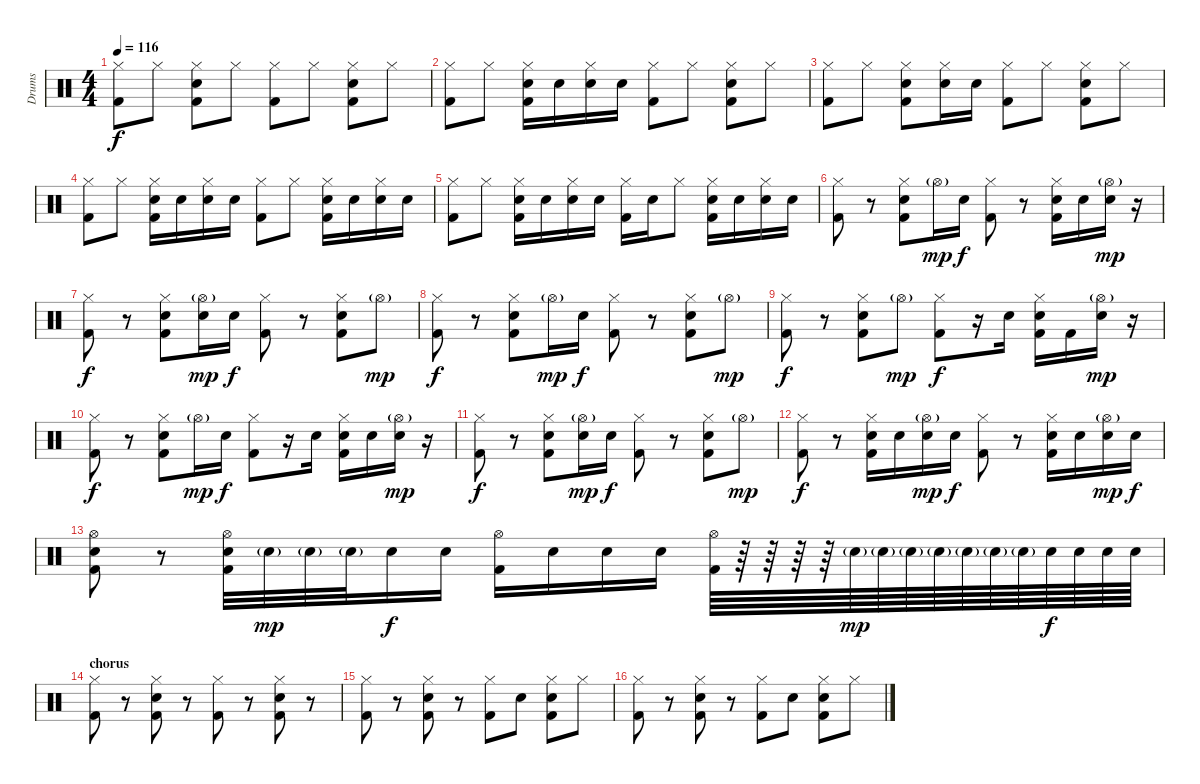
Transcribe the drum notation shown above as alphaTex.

\track ("Drums" "Drums") {instrument percussion}
\staff {score}
\articulation defaults
\ts (4 4)
\tempo 116
\clef neutral
\ks c
("Hi-Hat (closed)" "Kick (hit) 2").8{dy f} "Hi-Hat (closed)".8 ("Hi-Hat (closed)" "Snare (hit) 2" "Kick (hit) 2").8 "Hi-Hat (closed)".8 ("Hi-Hat (closed)" "Kick (hit) 2").8 "Hi-Hat (closed)".8 ("Hi-Hat (closed)" "Snare (hit) 2" "Kick (hit) 2").8 "Hi-Hat (closed)".8 |
("Hi-Hat (closed)" "Kick (hit) 2").8 "Hi-Hat (closed)".8 ("Hi-Hat (closed)" "Snare (hit) 2" "Kick (hit) 2").16 "Snare (hit) 2".16 ("Hi-Hat (closed)" "Snare (hit) 2").16 "Snare (hit) 2".16 ("Hi-Hat (closed)" "Kick (hit) 2").8 "Hi-Hat (closed)".8 ("Hi-Hat (closed)" "Snare (hit) 2" "Kick (hit) 2").8 "Hi-Hat (closed)".8 |
("Hi-Hat (closed)" "Kick (hit) 2").8 "Hi-Hat (closed)".8 ("Hi-Hat (closed)" "Snare (hit) 2" "Kick (hit) 2").8 ("Hi-Hat (closed)" "Snare (hit) 2").16 "Snare (hit) 2".16 ("Hi-Hat (closed)" "Kick (hit) 2").8 "Hi-Hat (closed)".8 ("Hi-Hat (closed)" "Snare (hit) 2" "Kick (hit) 2").8 "Hi-Hat (closed)".8 |
("Hi-Hat (closed)" "Kick (hit) 2").8 "Hi-Hat (closed)".8 ("Hi-Hat (closed)" "Snare (hit) 2" "Kick (hit) 2").16 "Snare (hit) 2".16 ("Hi-Hat (closed)" "Snare (hit) 2").16 "Snare (hit) 2".16 ("Hi-Hat (closed)" "Kick (hit) 2").8 "Hi-Hat (closed)".8 ("Hi-Hat (closed)" "Snare (hit) 2" "Kick (hit) 2").16 "Snare (hit) 2".16 ("Hi-Hat (closed)" "Snare (hit) 2").16 "Snare (hit) 2".16 |
("Hi-Hat (closed)" "Kick (hit) 2").8 "Hi-Hat (closed)".8 ("Hi-Hat (closed)" "Snare (hit) 2" "Kick (hit) 2").16 "Snare (hit) 2".16 ("Hi-Hat (closed)" "Snare (hit) 2").16 "Snare (hit) 2".16 ("Hi-Hat (closed)" "Kick (hit) 2").16 "Snare (hit) 2".16 "Hi-Hat (closed)".8 ("Hi-Hat (closed)" "Snare (hit) 2" "Kick (hit) 2").16 "Snare (hit) 2".16 ("Hi-Hat (closed)" "Snare (hit) 2").16 "Snare (hit) 2".16 |
("Hi-Hat (closed)" "Kick (hit) 2").8 r.8 ("Hi-Hat (closed)" "Snare (hit) 2" "Kick (hit) 2").8 "Hi-Hat (open)"{g}.16{dy mp} "Snare (hit) 2".16{dy f} ("Hi-Hat (closed)" "Kick (hit) 2").8 r.8 ("Hi-Hat (closed)" "Snare (hit) 2" "Kick (hit) 2").16 "Snare (hit) 2".16 ("Hi-Hat (open)"{g} "Snare (hit) 2").16{dy mp} r.16 |
("Hi-Hat (closed)" "Kick (hit) 2").8{dy f} r.8 ("Hi-Hat (closed)" "Snare (hit) 2" "Kick (hit) 2").8 ("Hi-Hat (open)"{g} "Snare (hit) 2").16{dy mp} "Snare (hit) 2".16{dy f} ("Hi-Hat (closed)" "Kick (hit) 2").8 r.8 ("Hi-Hat (closed)" "Snare (hit) 2" "Kick (hit) 2").8 "Hi-Hat (open)"{g}.8{dy mp} |
("Hi-Hat (closed)" "Kick (hit) 2").8{dy f} r.8 ("Hi-Hat (closed)" "Snare (hit) 2" "Kick (hit) 2").8 "Hi-Hat (open)"{g}.16{dy mp} "Snare (hit) 2".16{dy f} ("Hi-Hat (closed)" "Kick (hit) 2").8 r.8 ("Hi-Hat (closed)" "Snare (hit) 2" "Kick (hit) 2").8 "Hi-Hat (open)"{g}.8{dy mp} |
("Hi-Hat (closed)" "Kick (hit) 2").8{dy f} r.8 ("Hi-Hat (closed)" "Snare (hit) 2" "Kick (hit) 2").8 "Hi-Hat (open)"{g}.8{dy mp} ("Hi-Hat (closed)" "Kick (hit) 2").8{dy f} r.16 "Snare (hit) 2".16 ("Hi-Hat (closed)" "Snare (hit) 2" "Kick (hit) 2").16 "Kick (hit) 2".16 ("Hi-Hat (open)"{g} "Snare (hit) 2").16{dy mp} r.16 |
("Hi-Hat (closed)" "Kick (hit) 2").8{dy f} r.8 ("Hi-Hat (closed)" "Snare (hit) 2" "Kick (hit) 2").8 "Hi-Hat (open)"{g}.16{dy mp} "Snare (hit) 2".16{dy f} ("Hi-Hat (closed)" "Kick (hit) 2").8 r.16 "Snare (hit) 2".16 ("Hi-Hat (closed)" "Snare (hit) 2" "Kick (hit) 2").16 "Snare (hit) 2".16 ("Hi-Hat (open)"{g} "Snare (hit) 2").16{dy mp} r.16 |
("Hi-Hat (closed)" "Kick (hit) 2").8{dy f} r.8 ("Hi-Hat (closed)" "Snare (hit) 2" "Kick (hit) 2").8 ("Hi-Hat (open)"{g} "Snare (hit) 2").16{dy mp} "Snare (hit) 2".16{dy f} ("Hi-Hat (closed)" "Kick (hit) 2").8 r.8 ("Hi-Hat (closed)" "Snare (hit) 2" "Kick (hit) 2").8 "Hi-Hat (open)"{g}.8{dy mp} |
("Hi-Hat (closed)" "Kick (hit) 2").8{dy f} r.8 ("Hi-Hat (closed)" "Snare (hit) 2" "Kick (hit) 2").16 "Snare (hit) 2".16 ("Hi-Hat (open)"{g} "Snare (hit) 2").16{dy mp} "Snare (hit) 2".16{dy f} ("Hi-Hat (closed)" "Kick (hit) 2").8 r.8 ("Hi-Hat (closed)" "Snare (hit) 2" "Kick (hit) 2").16 "Snare (hit) 2".16 ("Hi-Hat (open)"{g} "Snare (hit) 2").16{dy mp} "Snare (hit) 2".16{dy f} |
("Hi-Hat (open)" "Snare (hit) 2" "Kick (hit) 2").8 r.8 ("Hi-Hat (open)" "Snare (hit) 2" "Kick (hit) 2").32 "Snare (hit) 2"{g}.32{dy mp} "Snare (hit) 2"{g}.32 "Snare (hit) 2"{g}.32 "Snare (hit) 2".16{dy f} "Snare (hit) 2".16 ("Hi-Hat (open)" "Kick (hit) 2").16 "Snare (hit) 2".16 "Snare (hit) 2".16 "Snare (hit) 2".16 ("Hi-Hat (open)" "Kick (hit) 2").64 r.64 r.64 r.64 r.64 "Snare (hit) 2"{g}.64{dy mp} "Snare (hit) 2"{g}.64 "Snare (hit) 2"{g}.64 "Snare (hit) 2"{g}.64 "Snare (hit) 2"{g}.64 "Snare (hit) 2"{g}.64 "Snare (hit) 2"{g}.64 "Snare (hit) 2".64{dy f} "Snare (hit) 2".64 "Snare (hit) 2".64 "Snare (hit) 2".64 |
\section ("" "chorus")
("Hi-Hat (closed)" "Kick (hit) 2").8 r.8 ("Hi-Hat (closed)" "Snare (hit) 2" "Kick (hit) 2").8 r.8 ("Hi-Hat (closed)" "Kick (hit) 2").8 r.8 ("Hi-Hat (closed)" "Snare (hit) 2" "Kick (hit) 2").8 r.8 |
("Hi-Hat (closed)" "Kick (hit) 2").8 r.8 ("Hi-Hat (closed)" "Snare (hit) 2" "Kick (hit) 2").8 r.8 ("Hi-Hat (closed)" "Kick (hit) 2").8 "Snare (hit) 2".8 ("Hi-Hat (closed)" "Snare (hit) 2" "Kick (hit) 2").8 "Hi-Hat (closed)".8 |
("Hi-Hat (closed)" "Kick (hit) 2").8 r.8 ("Hi-Hat (closed)" "Snare (hit) 2" "Kick (hit) 2").8 r.8 ("Hi-Hat (closed)" "Kick (hit) 2").8 "Snare (hit) 2".8 ("Hi-Hat (closed)" "Snare (hit) 2" "Kick (hit) 2").8 "Hi-Hat (closed)".8
